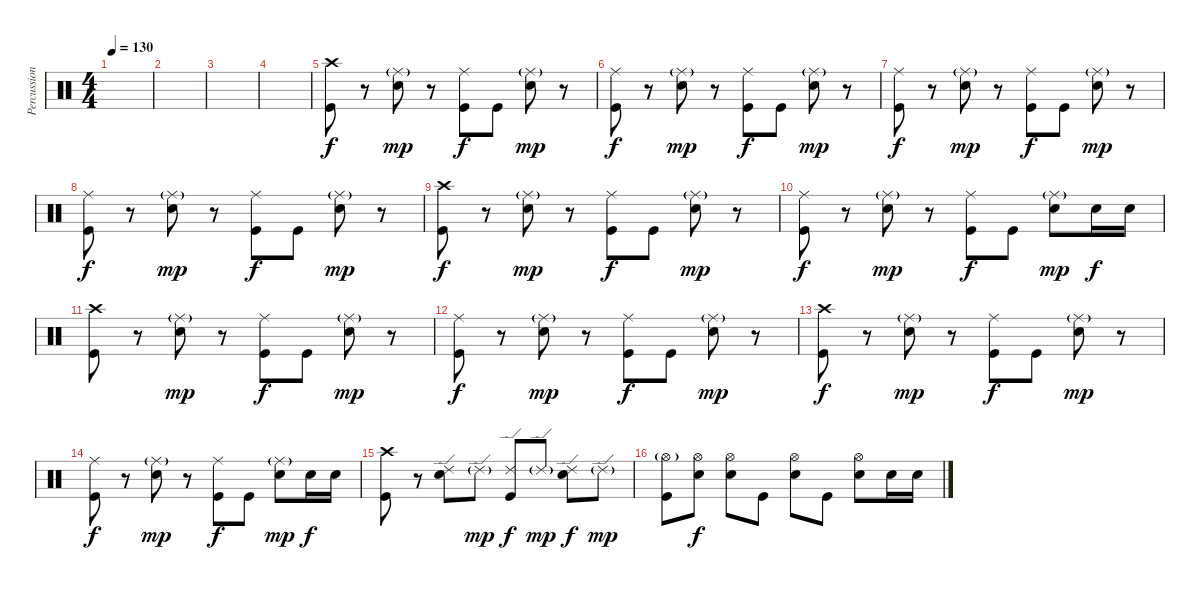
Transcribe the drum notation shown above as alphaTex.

\track ("Percussion" "Percussion") {instrument percussion}
\staff {score}
\articulation defaults
\ts (4 4)
\tempo 130
\clef neutral
\ks c
|
|
|
|
("Crash high (hit)" "Kick (hit)").8 r.8 ("Ride (middle)"{g} "Electric Snare (hit)").8{dy mp} r.8 ("Ride (middle)" "Kick (hit)").8{dy f} "Kick (hit)".8 ("Ride (middle)"{g} "Electric Snare (hit)").8{dy mp} r.8 |
("Ride (middle)" "Kick (hit)").8{dy f} r.8 ("Ride (middle)"{g} "Electric Snare (hit)").8{dy mp} r.8 ("Ride (middle)" "Kick (hit)").8{dy f} "Kick (hit)".8 ("Ride (middle)"{g} "Electric Snare (hit)").8{dy mp} r.8 |
("Ride (middle)" "Kick (hit)").8{dy f} r.8 ("Ride (middle)"{g} "Electric Snare (hit)").8{dy mp} r.8 ("Ride (middle)" "Kick (hit)").8{dy f} "Kick (hit)".8 ("Ride (middle)"{g} "Electric Snare (hit)").8{dy mp} r.8 |
("Ride (middle)" "Kick (hit)").8{dy f} r.8 ("Ride (middle)"{g} "Electric Snare (hit)").8{dy mp} r.8 ("Ride (middle)" "Kick (hit)").8{dy f} "Kick (hit)".8 ("Ride (middle)"{g} "Electric Snare (hit)").8{dy mp} r.8 |
("Crash high (hit)" "Kick (hit)").8{dy f} r.8 ("Ride (middle)"{g} "Electric Snare (hit)").8{dy mp} r.8 ("Ride (middle)" "Kick (hit)").8{dy f} "Kick (hit)".8 ("Ride (middle)"{g} "Electric Snare (hit)").8{dy mp} r.8 |
("Ride (middle)" "Kick (hit)").8{dy f} r.8 ("Ride (middle)"{g} "Electric Snare (hit)").8{dy mp} r.8 ("Ride (middle)" "Kick (hit)").8{dy f} "Kick (hit)".8 ("Ride (middle)"{g} "Electric Snare (hit)").8{dy mp} "Electric Snare (hit)".16{dy f} "Electric Snare (hit)".16 |
("Crash high (hit)" "Kick (hit)").8 r.8 ("Ride (middle)"{g} "Electric Snare (hit)").8{dy mp} r.8 ("Ride (middle)" "Kick (hit)").8{dy f} "Kick (hit)".8 ("Ride (middle)"{g} "Electric Snare (hit)").8{dy mp} r.8 |
("Ride (middle)" "Kick (hit)").8{dy f} r.8 ("Ride (middle)"{g} "Electric Snare (hit)").8{dy mp} r.8 ("Ride (middle)" "Kick (hit)").8{dy f} "Kick (hit)".8 ("Ride (middle)"{g} "Electric Snare (hit)").8{dy mp} r.8 |
("Crash high (hit)" "Kick (hit)").8{dy f} r.8 ("Ride (middle)"{g} "Electric Snare (hit)").8{dy mp} r.8 ("Ride (middle)" "Kick (hit)").8{dy f} "Kick (hit)".8 ("Ride (middle)"{g} "Electric Snare (hit)").8{dy mp} r.8 |
("Ride (middle)" "Kick (hit)").8{dy f} r.8 ("Ride (middle)"{g} "Electric Snare (hit)").8{dy mp} r.8 ("Ride (middle)" "Kick (hit)").8{dy f} "Kick (hit)".8 ("Ride (middle)"{g} "Electric Snare (hit)").8{dy mp} "Electric Snare (hit)".16{dy f} "Electric Snare (hit)".16 |
("Crash high (hit)" "Kick (hit)").8 r.8 ("Ride (edge) 2" "Electric Snare (hit)").8 "Ride (edge) 2"{g}.8{dy mp} ("Ride (edge) 2" "Kick (hit)").8{dy f} "Ride (edge) 2"{g}.8{dy mp} ("Ride (edge) 2" "Electric Snare (hit)").8{dy f} "Ride (edge) 2"{g}.8{dy mp} |
("Hi-Hat (open)"{g} "Kick (hit)").8 ("Hi-Hat (open)" "Electric Snare (hit)").8{dy f} ("Hi-Hat (open)" "Electric Snare (hit)").8 "Kick (hit)".8 ("Hi-Hat (open)" "Electric Snare (hit)").8 "Kick (hit)".8 ("Hi-Hat (open)" "Electric Snare (hit)").8 "Electric Snare (hit)".16 "Electric Snare (hit)".16
